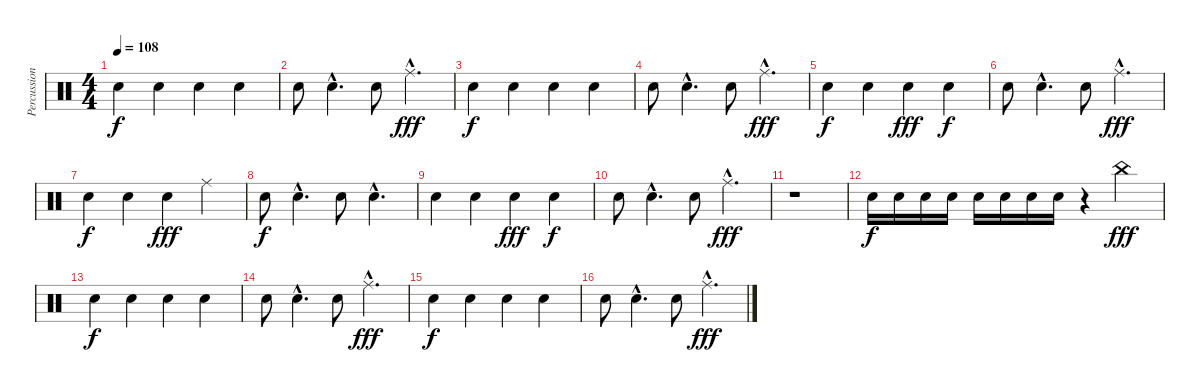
\track ("Percussion" "Percussion") {instrument percussion}
\staff {score}
\articulation defaults
\ts (4 4)
\tempo 108
\clef neutral
\ks c "Snare (hit) 2".4{dy f} "Snare (hit) 2".4 "Snare (hit) 2".4 "Snare (hit) 2".4
|
"Snare (hit) 2".8 "Snare (hit) 2"{hac}.4{d} "Snare (hit) 2".8 "Ride (middle)"{hac}.4{d dy fff} |
"Snare (hit) 2".4{dy f} "Snare (hit) 2".4 "Snare (hit) 2".4 "Snare (hit) 2".4 |
"Snare (hit) 2".8 "Snare (hit) 2"{hac}.4{d} "Snare (hit) 2".8 "Ride (middle)"{hac}.4{d dy fff} |
"Snare (hit) 2".4{dy f} "Snare (hit) 2".4 "Snare (hit) 2".4{dy fff} "Snare (hit) 2".4{dy f} |
"Snare (hit) 2".8 "Snare (hit) 2"{hac}.4{d} "Snare (hit) 2".8 "Ride (middle)"{hac}.4{d dy fff} |
"Snare (hit) 2".4{dy f} "Snare (hit) 2".4 "Snare (hit) 2".4{dy fff} "Ride (middle)".4 |
"Snare (hit) 2".8{dy f} "Snare (hit) 2"{hac}.4{d} "Snare (hit) 2".8 "Snare (hit) 2"{hac}.4{d} |
"Snare (hit) 2".4 "Snare (hit) 2".4 "Snare (hit) 2".4{dy fff} "Snare (hit) 2".4{dy f} |
"Snare (hit) 2".8 "Snare (hit) 2"{hac}.4{d} "Snare (hit) 2".8 "Ride (middle)"{hac}.4{d dy fff} |
r.1 |
"Electric Snare (hit)".16{dy f} "Electric Snare (hit)".16 "Electric Snare (hit)".16 "Electric Snare (hit)".16 "Electric Snare (hit)".16 "Electric Snare (hit)".16 "Electric Snare (hit)".16 "Electric Snare (hit)".16 r.4 "China (hit)".4{dy fff} |
"Snare (hit) 2".4{dy f} "Snare (hit) 2".4 "Snare (hit) 2".4 "Snare (hit) 2".4 |
"Snare (hit) 2".8 "Snare (hit) 2"{hac}.4{d} "Snare (hit) 2".8 "Ride (middle)"{hac}.4{d dy fff} |
"Snare (hit) 2".4{dy f} "Snare (hit) 2".4 "Snare (hit) 2".4 "Snare (hit) 2".4 |
"Snare (hit) 2".8 "Snare (hit) 2"{hac}.4{d} "Snare (hit) 2".8 "Ride (middle)"{hac}.4{d dy fff}
